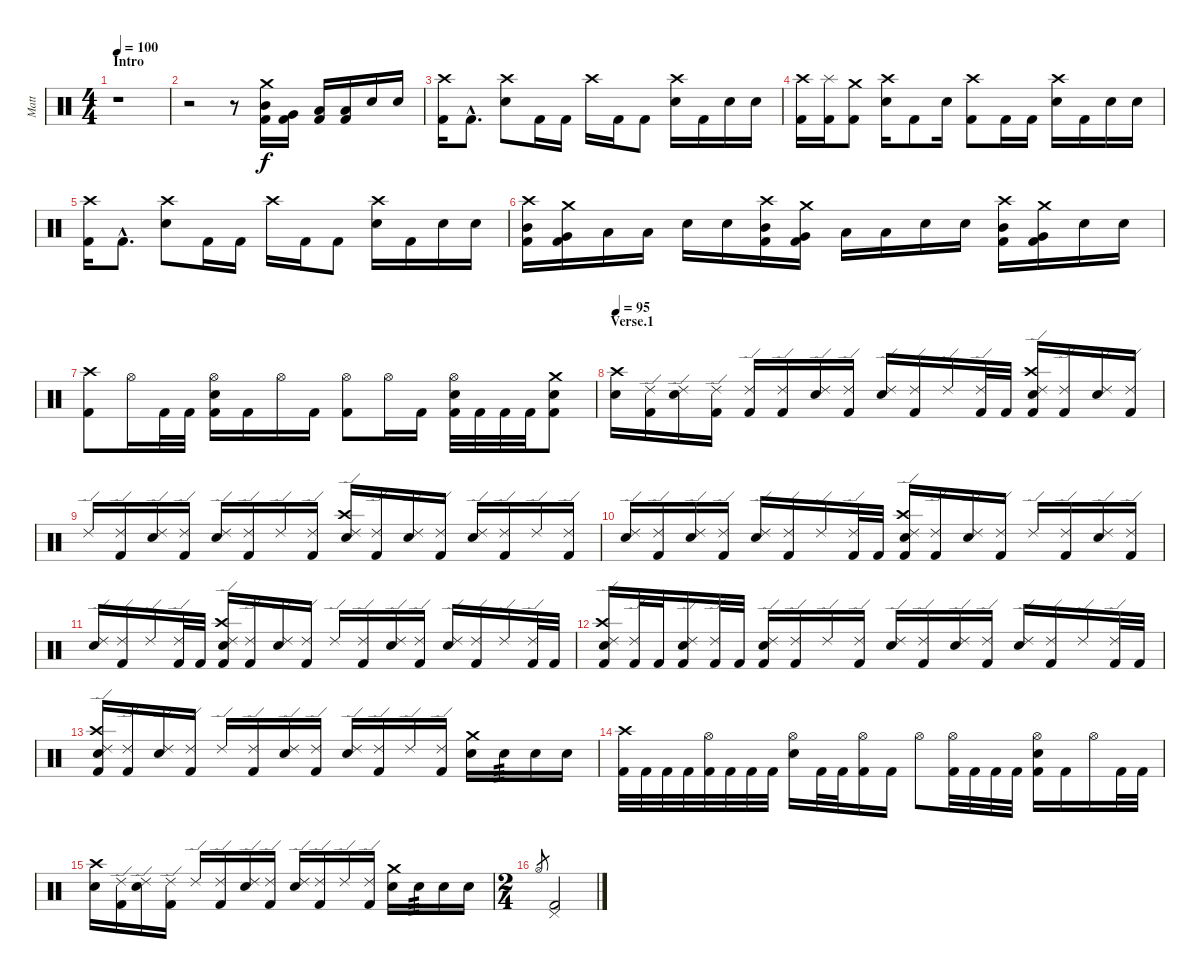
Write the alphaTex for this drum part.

\track ("Matt" "Matt") {instrument percussion}
\staff {score}
\articulation defaults
\ts (4 4)
\section ("" "Intro")
\tempo 100
\tempo 98
\tempo 100
\clef neutral
\ks c
r.1{dy f} |
r.2 r.8 ("Crash medium (hit)" "Mid Tom (hit)" "Kick (hit) 2").16 ("Very Low Tom (hit)" "Kick (hit) 2").16 ("Low Floor Tom (hit)" "Kick (hit) 2").16 ("Low Tom (hit)" "Kick (hit) 2").16 "Electric Snare (hit)".16 "Electric Snare (hit)".16 |
("Crash high (hit)" "Kick (hit) 2").16 "Kick (hit) 2"{hac}.8{d} ("Crash high (hit)" "Electric Snare (hit)").8 "Kick (hit) 2".16 "Kick (hit) 2".16 "Crash high (hit)".16 "Kick (hit) 2".16 "Kick (hit) 2".8 ("Crash high (hit)" "Electric Snare (hit)").16 "Kick (hit) 2".16 "Electric Snare (hit)".16 "Electric Snare (hit)".16 |
("Crash high (hit)" "Kick (hit) 2").16 ("Splash (hit)" "Kick (hit) 2").16 ("Crash medium (hit)" "Kick (hit) 2").8 ("Crash high (hit)" "Electric Snare (hit)").16 "Kick (hit) 2".8 "Electric Snare (hit)".16 ("Crash high (hit)" "Kick (hit) 2").8 "Kick (hit) 2".16 "Kick (hit) 2".16 ("Crash high (hit)" "Electric Snare (hit)").16 "Kick (hit) 2".16 "Electric Snare (hit)".16 "Electric Snare (hit)".16 |
("Crash high (hit)" "Kick (hit) 2").16 "Kick (hit) 2"{hac}.8{d} ("Crash high (hit)" "Electric Snare (hit)").8 "Kick (hit) 2".16 "Kick (hit) 2".16 "Crash high (hit)".16 "Kick (hit) 2".16 "Kick (hit) 2".8 ("Crash high (hit)" "Electric Snare (hit)").16 "Kick (hit) 2".16 "Electric Snare (hit)".16 "Electric Snare (hit)".16 |
("Crash high (hit)" "Mid Tom (hit)" "Kick (hit) 2").16 ("Crash medium (hit)" "Very Low Tom (hit)" "Kick (hit) 2").16 "Low Floor Tom (hit)".16 "Low Tom (hit)".16 "Electric Snare (hit)".16 "Electric Snare (hit)".16 ("Crash high (hit)" "Mid Tom (hit)" "Kick (hit) 2").16 ("Crash medium (hit)" "Very Low Tom (hit)" "Kick (hit) 2").16 "Low Floor Tom (hit)".16 "Low Tom (hit)".16 "Electric Snare (hit)".16 "Electric Snare (hit)".16 ("Crash high (hit)" "Mid Tom (hit)" "Kick (hit) 2").16 ("Crash medium (hit)" "Very Low Tom (hit)" "Kick (hit) 2").16 "Electric Snare (hit)".16 "Electric Snare (hit)".16 |
("Crash high (hit)" "Kick (hit) 2").8 "Hi-Hat (open)".16 "Kick (hit) 2".32 "Kick (hit) 2".32 ("Hi-Hat (open)" "Electric Snare (hit)" "Kick (hit) 2").16 "Kick (hit) 2".16 "Hi-Hat (open)".16 "Kick (hit) 2".16 ("Hi-Hat (open)" "Kick (hit) 2").8 "Hi-Hat (open)".16 "Kick (hit) 2".16 ("Hi-Hat (open)" "Electric Snare (hit)" "Kick (hit) 2").32 "Kick (hit) 2".32 "Kick (hit) 2".32 "Kick (hit) 2".32 ("Crash medium (hit)" "Electric Snare (hit)" "Kick (hit) 2").8 |
\section ("" "Verse.1")
\tempo 95
("Crash high (hit)" "Electric Snare (hit)").16 ("Ride (edge) 2" "Kick (hit) 2").16 ("Ride (edge) 2" "Electric Snare (hit)").16 ("Ride (edge) 2" "Kick (hit) 2").16 ("Ride (edge) 2" "Kick (hit) 2").16 ("Ride (edge) 2" "Kick (hit) 2").16 ("Ride (edge) 2" "Electric Snare (hit)").16 ("Ride (edge) 2" "Kick (hit) 2").16 ("Ride (edge) 2" "Electric Snare (hit)").16 ("Ride (edge) 2" "Kick (hit) 2").16 "Ride (edge) 2".16 ("Ride (edge) 2" "Kick (hit) 2").32 "Kick (hit) 2".32 ("Crash high (hit)" "Ride (edge) 2" "Electric Snare (hit)" "Kick (hit) 2").16 ("Ride (edge) 2" "Kick (hit) 2").16 ("Ride (edge) 2" "Electric Snare (hit)").16 ("Ride (edge) 2" "Kick (hit) 2").16 |
"Ride (edge) 2".16 ("Ride (edge) 2" "Kick (hit) 2").16 ("Ride (edge) 2" "Electric Snare (hit)").16 ("Ride (edge) 2" "Kick (hit) 2").16 ("Ride (edge) 2" "Electric Snare (hit)").16 ("Ride (edge) 2" "Kick (hit) 2").16 "Ride (edge) 2".16 ("Ride (edge) 2" "Kick (hit) 2").16 ("Crash high (hit)" "Ride (edge) 2" "Electric Snare (hit)").16 ("Ride (edge) 2" "Kick (hit) 2").16 ("Ride (edge) 2" "Electric Snare (hit)").16 ("Ride (edge) 2" "Kick (hit) 2").16 ("Ride (edge) 2" "Electric Snare (hit)").16 ("Ride (edge) 2" "Kick (hit) 2").16 "Ride (edge) 2".16 ("Ride (edge) 2" "Kick (hit) 2").16 |
("Ride (edge) 2" "Electric Snare (hit)").16 ("Ride (edge) 2" "Kick (hit) 2").16 ("Ride (edge) 2" "Electric Snare (hit)").16 ("Ride (edge) 2" "Kick (hit) 2").16 ("Ride (edge) 2" "Electric Snare (hit)").16 ("Ride (edge) 2" "Kick (hit) 2").16 "Ride (edge) 2".16 ("Ride (edge) 2" "Kick (hit) 2").32 "Kick (hit) 2".32 ("Crash high (hit)" "Ride (edge) 2" "Electric Snare (hit)" "Kick (hit) 2").16 ("Ride (edge) 2" "Kick (hit) 2").16 ("Ride (edge) 2" "Electric Snare (hit)").16 ("Ride (edge) 2" "Kick (hit) 2").16 "Ride (edge) 2".16 ("Ride (edge) 2" "Kick (hit) 2").16 ("Ride (edge) 2" "Electric Snare (hit)").16 ("Ride (edge) 2" "Kick (hit) 2").16 |
("Ride (edge) 2" "Electric Snare (hit)").16 ("Ride (edge) 2" "Kick (hit) 2").16 "Ride (edge) 2".16 ("Ride (edge) 2" "Kick (hit) 2").32 "Kick (hit) 2".32 ("Crash high (hit)" "Ride (edge) 2" "Electric Snare (hit)" "Kick (hit) 2").16 ("Ride (edge) 2" "Kick (hit) 2").16 ("Ride (edge) 2" "Electric Snare (hit)").16 ("Ride (edge) 2" "Kick (hit) 2").16 "Ride (edge) 2".16 ("Ride (edge) 2" "Kick (hit) 2").16 ("Ride (edge) 2" "Electric Snare (hit)").16 ("Ride (edge) 2" "Kick (hit) 2").16 ("Ride (edge) 2" "Electric Snare (hit)").16 ("Ride (edge) 2" "Kick (hit) 2").16 "Ride (edge) 2".16 ("Ride (edge) 2" "Kick (hit) 2").32 "Kick (hit) 2".32 |
("Crash high (hit)" "Ride (edge) 2" "Electric Snare (hit)" "Kick (hit) 2").16 ("Ride (edge) 2" "Kick (hit) 2").32 "Kick (hit) 2".32 ("Ride (edge) 2" "Electric Snare (hit)" "Kick (hit) 2").16 ("Ride (edge) 2" "Kick (hit) 2").32 "Kick (hit) 2".32 ("Ride (edge) 2" "Electric Snare (hit)" "Kick (hit) 2").16 ("Ride (edge) 2" "Kick (hit) 2").16 "Ride (edge) 2".16 ("Ride (edge) 2" "Kick (hit) 2").16 ("Ride (edge) 2" "Electric Snare (hit)").16 ("Ride (edge) 2" "Kick (hit) 2").16 ("Ride (edge) 2" "Electric Snare (hit)").16 ("Ride (edge) 2" "Kick (hit) 2").16 ("Ride (edge) 2" "Electric Snare (hit)").16 ("Ride (edge) 2" "Kick (hit) 2").16 "Ride (edge) 2".16 ("Ride (edge) 2" "Kick (hit) 2").32 "Kick (hit) 2".32 |
("Crash high (hit)" "Ride (edge) 2" "Electric Snare (hit)" "Kick (hit) 2").16 ("Ride (edge) 2" "Kick (hit) 2").16 ("Ride (edge) 2" "Electric Snare (hit)").16 ("Ride (edge) 2" "Kick (hit) 2").16 "Ride (edge) 2".16 ("Ride (edge) 2" "Kick (hit) 2").16 ("Ride (edge) 2" "Electric Snare (hit)").16 ("Ride (edge) 2" "Kick (hit) 2").16 ("Ride (edge) 2" "Electric Snare (hit)").16 ("Ride (edge) 2" "Kick (hit) 2").16 "Ride (edge) 2".16 ("Ride (edge) 2" "Kick (hit) 2").16 ("Crash medium (hit)" "Electric Snare (hit)").16 "Electric Snare (hit)".16{tp 3} "Electric Snare (hit)".16 "Electric Snare (hit)".16 |
("Crash high (hit)" "Kick (hit) 2").32 "Kick (hit) 2".32 "Kick (hit) 2".32 "Kick (hit) 2".32 ("Hi-Hat (open)" "Kick (hit) 2").32 "Kick (hit) 2".32 "Kick (hit) 2".32 "Kick (hit) 2".32 ("Hi-Hat (open)" "Electric Snare (hit)").16 "Kick (hit) 2".32 "Kick (hit) 2".32 ("Hi-Hat (open)" "Kick (hit) 2").16 "Kick (hit) 2".16 "Hi-Hat (open)".8 ("Hi-Hat (open)" "Kick (hit) 2").32 "Kick (hit) 2".32 "Kick (hit) 2".32 "Kick (hit) 2".32 ("Hi-Hat (open)" "Electric Snare (hit)" "Kick (hit) 2").16 "Kick (hit) 2".16 "Hi-Hat (open)".16 "Kick (hit) 2".32 "Kick (hit) 2".32 |
("Crash high (hit)" "Electric Snare (hit)").16 ("Ride (edge) 2" "Kick (hit) 2").16 ("Ride (edge) 2" "Electric Snare (hit)").16 ("Ride (edge) 2" "Kick (hit) 2").16 "Ride (edge) 2".16 ("Ride (edge) 2" "Kick (hit) 2").16 ("Ride (edge) 2" "Electric Snare (hit)").16 ("Ride (edge) 2" "Kick (hit) 2").16 ("Ride (edge) 2" "Electric Snare (hit)").16 ("Ride (edge) 2" "Kick (hit) 2").16 "Ride (edge) 2".16 ("Ride (edge) 2" "Kick (hit) 2").16 ("Crash medium (hit)" "Electric Snare (hit)").16 "Electric Snare (hit)".16{tp 3} "Electric Snare (hit)".16 "Electric Snare (hit)".16 |
\ts (2 4)
"Hi-Hat (open)".8{gr} ("Pedal Hi-Hat (hit)" "Kick (hit) 2").2
